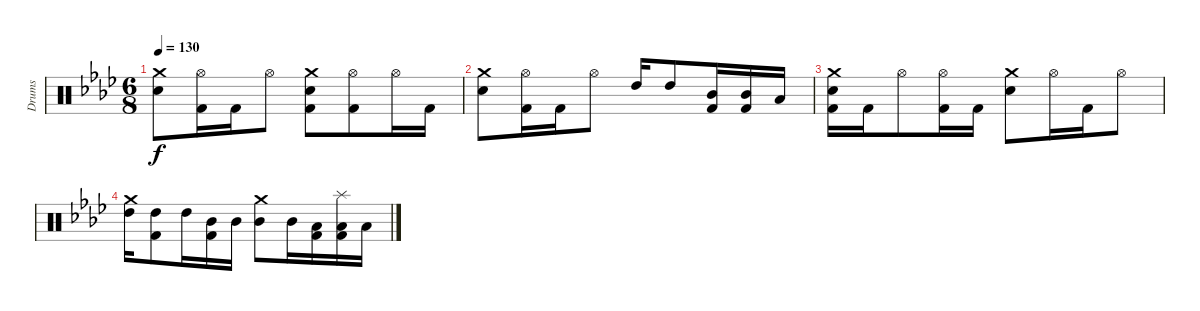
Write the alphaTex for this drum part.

\track ("Drums" "Drums") {instrument percussion}
\staff {score}
\articulation defaults
\ts (6 8)
\tempo 130
\clef neutral
\ks ab
("Crash medium (hit)" "Electric Snare (hit)").8{dy f} ("Hi-Hat (open)" "Kick (hit) 2").16 "Kick (hit) 2".16 "Hi-Hat (open)".8 ("Crash medium (hit)" "Electric Snare (hit)" "Kick (hit) 2").8 ("Hi-Hat (open)" "Kick (hit) 2").8 "Hi-Hat (open)".16 "Kick (hit) 2".16 |
("Crash medium (hit)" "Electric Snare (hit)").8 ("Hi-Hat (open)" "Kick (hit) 2").16 "Kick (hit) 2".16 "Hi-Hat (open)".8 "High Tom (hit)".16 "High Tom (hit)".8 ("Mid Tom (hit)" "Kick (hit) 2").16 ("Mid Tom (hit)" "Kick (hit) 2").16 "Low Tom (hit)".16 |
("Crash medium (hit)" "Electric Snare (hit)" "Kick (hit) 2").16 "Kick (hit) 2".16 "Hi-Hat (open)".8 ("Hi-Hat (open)" "Kick (hit) 2").16 "Kick (hit) 2".16 ("Crash medium (hit)" "Electric Snare (hit)").8 "Hi-Hat (open)".16 "Kick (hit) 2".16 "Hi-Hat (open)".8 |
("High Tom (hit)" "Crash medium (hit)").16 ("High Tom (hit)" "Kick (hit) 2").8 "High Tom (hit)".16 ("Mid Tom (hit)" "Kick (hit) 2").16 "Mid Tom (hit)".16 ("Mid Tom (hit)" "Crash medium (hit)").8 "Mid Tom (hit)".16 ("Low Tom (hit)" "Kick (hit) 2").16 ("Low Tom (hit)" "Splash (hit)" "Kick (hit) 2").16 "Low Tom (hit)".16
